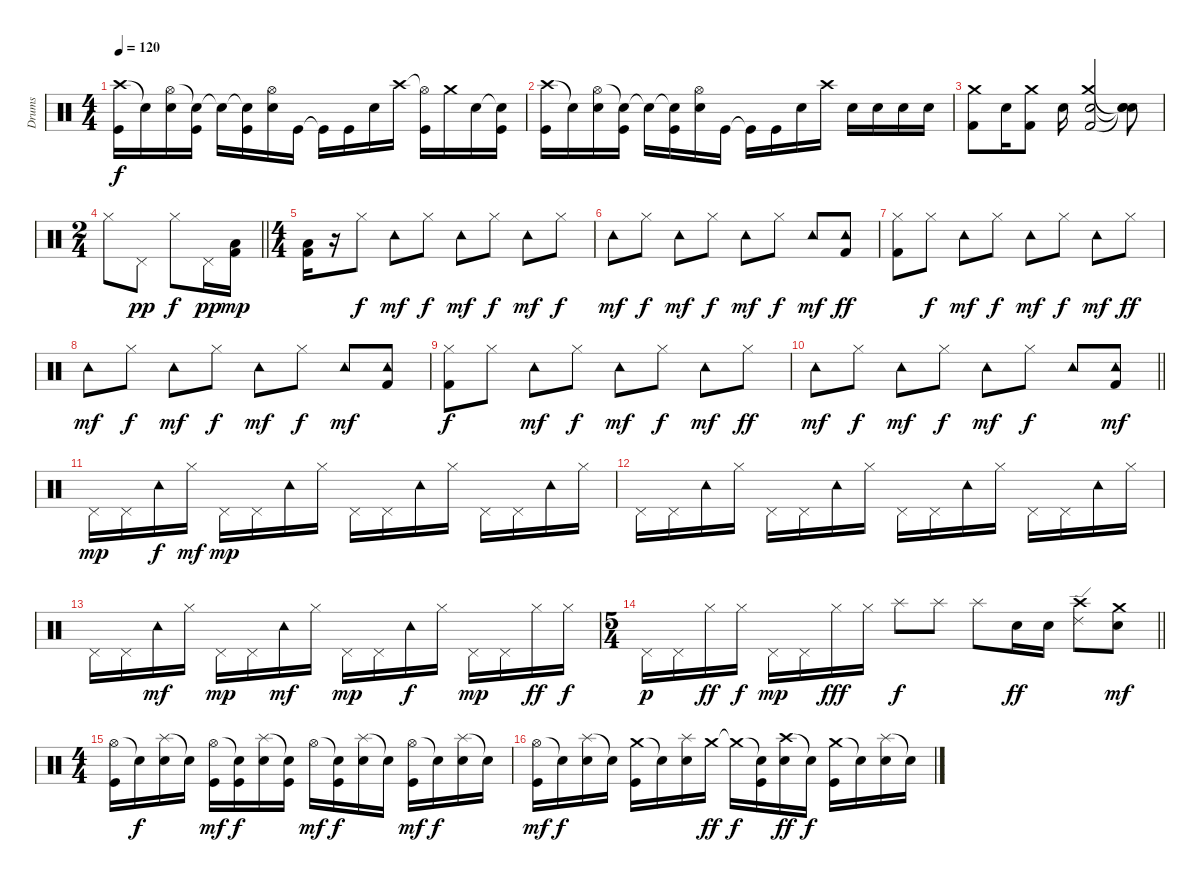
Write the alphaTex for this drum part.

\track ("Drums" "Drums") {instrument percussion}
\staff {score}
\articulation defaults
\ts (4 4)
\tempo 120
\clef neutral
\ks c
("Crash high (hit)" "Kick (hit)").16{dy f} "Snare (hit)"{t}.16 ("Hi-Hat (open)" "Electric Snare (hit)").16 ("Snare (hit)"{t} "Kick (hit)").16 "Snare (hit)"{t}.16 ("Snare (hit)"{t} "Kick (hit)").16 ("Hi-Hat (open)" "Electric Snare (hit)").16 "Kick (hit)".16 "Kick (hit)"{t}.16 "Kick (hit)".16 "Electric Snare (hit)".16 "Crash high (hit)".16 ("Hi-Hat (open)"{t} "Kick (hit)").16 "Crash medium (hit)".16 "Electric Snare (hit)".16 ("Snare (hit)"{t} "Kick (hit)").16 |
("Crash high (hit)" "Kick (hit)").16 "Snare (hit)"{t}.16 ("Hi-Hat (open)" "Electric Snare (hit)").16 ("Snare (hit)"{t} "Kick (hit)").16 "Snare (hit)"{t}.16 ("Snare (hit)"{t} "Kick (hit)").16 ("Hi-Hat (open)" "Electric Snare (hit)").16 "Kick (hit)".16 "Kick (hit)"{t}.16 "Kick (hit)".16 "Electric Snare (hit)".16 "Crash high (hit)".16 "Snare (hit) 2".16 "Snare (hit) 2".16 "Snare (hit) 2".16 "Snare (hit) 2".16 |
("Crash medium (hit)" "Kick (hit) 2").8 "Snare (hit) 2".16 ("Crash medium (hit)" "Kick (hit) 2").8 "Snare (hit) 2".16 ("Crash medium (hit)" "Snare (hit) 2" "Kick (hit) 2").2 ("Snare (hit)"{t} "Snare (hit)"{t} "Snare (hit)"{t}).8 |
\ts (2 4)
\barLineRight lightlight "Hi-Hat (closed)".8 "Pedal Hi-Hat (hit)".8{dy pp} "Hi-Hat (closed)".8{dy f} "Pedal Hi-Hat (hit)".16{dy pp}
("Low Floor Tom (hit)" "Kick (hit) 2").16{dy mp} |
\ts (4 4)
("Low Floor Tom (hit)" "Kick (hit) 2").16 r.16 "Hi-Hat (closed)".8{dy f} "Tambourine (hit)".8{dy mf} "Hi-Hat (closed)".8{dy f} "Tambourine (hit)".8{dy mf} "Hi-Hat (closed)".8{dy f} "Tambourine (hit)".8{dy mf} "Hi-Hat (closed)".8{dy f} |
"Tambourine (hit)".8{dy mf} "Hi-Hat (closed)".8{dy f} "Tambourine (hit)".8{dy mf} "Hi-Hat (closed)".8{dy f} "Tambourine (hit)".8{dy mf} "Hi-Hat (closed)".8{dy f} "Tambourine (hit)".8{dy mf} ("Tambourine (hit)" "Kick (hit) 2").8{dy ff} |
("Hi-Hat (closed)" "Kick (hit) 2").8 "Hi-Hat (closed)".8{dy f} "Tambourine (hit)".8{dy mf} "Hi-Hat (closed)".8{dy f} "Tambourine (hit)".8{dy mf} "Hi-Hat (closed)".8{dy f} "Tambourine (hit)".8{dy mf} "Hi-Hat (closed)".8{dy ff} |
"Tambourine (hit)".8{dy mf} "Hi-Hat (closed)".8{dy f} "Tambourine (hit)".8{dy mf} "Hi-Hat (closed)".8{dy f} "Tambourine (hit)".8{dy mf} "Hi-Hat (closed)".8{dy f} "Tambourine (hit)".8{dy mf} ("Tambourine (hit)" "Kick (hit) 2").8 |
("Hi-Hat (closed)" "Kick (hit) 2").8{dy f} "Hi-Hat (closed)".8 "Tambourine (hit)".8{dy mf} "Hi-Hat (closed)".8{dy f} "Tambourine (hit)".8{dy mf} "Hi-Hat (closed)".8{dy f} "Tambourine (hit)".8{dy mf} "Hi-Hat (closed)".8{dy ff} |
\barLineRight lightlight "Tambourine (hit)".8{dy mf} "Hi-Hat (closed)".8{dy f} "Tambourine (hit)".8{dy mf} "Hi-Hat (closed)".8{dy f} "Tambourine (hit)".8{dy mf} "Hi-Hat (closed)".8{dy f} "Tambourine (hit)".8
("Tambourine (hit)" "Kick (hit) 2").8{dy mf} |
\section ("" "")
"Pedal Hi-Hat (hit)".16{dy mp} "Pedal Hi-Hat (hit)".16 "Tambourine (hit)".16{dy f} "Hi-Hat (closed)".16{dy mf} "Pedal Hi-Hat (hit)".16{dy mp} "Pedal Hi-Hat (hit)".16 "Tambourine (hit)".16 "Hi-Hat (closed)".16 "Pedal Hi-Hat (hit)".16 "Pedal Hi-Hat (hit)".16 "Tambourine (hit)".16 "Hi-Hat (closed)".16 "Pedal Hi-Hat (hit)".16 "Pedal Hi-Hat (hit)".16 "Tambourine (hit)".16 "Hi-Hat (closed)".16 |
"Pedal Hi-Hat (hit)".16 "Pedal Hi-Hat (hit)".16 "Tambourine (hit)".16 "Hi-Hat (closed)".16 "Pedal Hi-Hat (hit)".16 "Pedal Hi-Hat (hit)".16 "Tambourine (hit)".16 "Hi-Hat (closed)".16 "Pedal Hi-Hat (hit)".16 "Pedal Hi-Hat (hit)".16 "Tambourine (hit)".16 "Hi-Hat (closed)".16 "Pedal Hi-Hat (hit)".16 "Pedal Hi-Hat (hit)".16 "Tambourine (hit)".16 "Hi-Hat (closed)".16 |
"Pedal Hi-Hat (hit)".16 "Pedal Hi-Hat (hit)".16 "Tambourine (hit)".16{dy mf} "Hi-Hat (closed)".16 "Pedal Hi-Hat (hit)".16{dy mp} "Pedal Hi-Hat (hit)".16 "Tambourine (hit)".16{dy mf} "Hi-Hat (closed)".16 "Pedal Hi-Hat (hit)".16{dy mp} "Pedal Hi-Hat (hit)".16 "Tambourine (hit)".16{dy f} "Hi-Hat (closed)".16 "Pedal Hi-Hat (hit)".16{dy mp} "Pedal Hi-Hat (hit)".16 "Hi-Hat (closed)".16{dy ff} "Hi-Hat (closed)".16{dy f} |
\ts (5 4)
\barLineRight lightlight "Pedal Hi-Hat (hit)".16{dy p} "Pedal Hi-Hat (hit)".16 "Hi-Hat (closed)".16{dy ff} "Hi-Hat (closed)".16{dy f} "Pedal Hi-Hat (hit)".16{dy mp} "Pedal Hi-Hat (hit)".16 "Hi-Hat (closed)".16{dy fff} "Hi-Hat (closed)".16 "Splash (hit)".8{dy f} "Splash (hit)".8 "Splash (hit)".8 "Electric Snare (hit)".16{dy ff} "Electric Snare (hit)".16
("Ride (edge) 2" "Crash high (hit)").8 ("Crash medium (hit)" "Electric Snare (hit)").8{dy mf} |
\ts (4 4)
("Hi-Hat (open)" "Kick (hit)").16 "Snare (hit)"{t}.16{dy f} ("Splash (hit)" "Electric Snare (hit)").16 "Snare (hit)"{t}.16 ("Hi-Hat (open)" "Kick (hit)").16{dy mf} ("Snare (hit)"{t} "Kick (hit)").16{dy f} ("Splash (hit)" "Electric Snare (hit)").16 ("Snare (hit)"{t} "Kick (hit)").16 "Hi-Hat (open)".16{dy mf} ("Snare (hit)"{t} "Kick (hit)").16{dy f} ("Splash (hit)" "Electric Snare (hit)").16 "Snare (hit)"{t}.16 ("Hi-Hat (open)" "Kick (hit)").16{dy mf} "Snare (hit)"{t}.16{dy f} ("Splash (hit)" "Electric Snare (hit)").16 "Snare (hit)"{t}.16 |
("Hi-Hat (open)" "Kick (hit)").16{dy mf} "Snare (hit)"{t}.16{dy f} ("Splash (hit)" "Electric Snare (hit)").16 "Snare (hit)"{t}.16 ("Crash medium (hit)" "Kick (hit)").16 "Snare (hit)"{t}.16 ("Splash (hit)" "Electric Snare (hit)").16 "Crash medium (hit)".16{dy ff} "Crash medium (hit)"{t}.16{dy f} ("Snare (hit)"{t} "Kick (hit)").16 ("Crash high (hit)" "Electric Snare (hit)").16{dy ff} "Snare (hit)"{t}.16{dy f} ("Crash medium (hit)" "Kick (hit)").16 "Snare (hit)"{t}.16 ("Splash (hit)" "Electric Snare (hit)").16 "Snare (hit)"{t}.16
